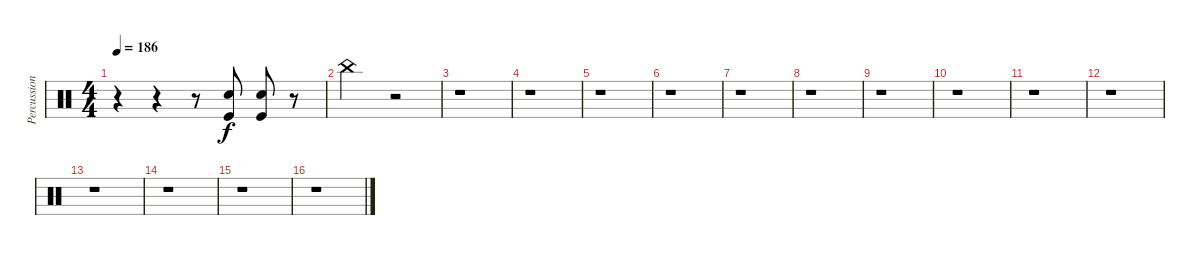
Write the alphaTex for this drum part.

\track ("Percussions" "Percussion") {instrument percussion}
\staff {score}
\articulation defaults
\ts (4 4)
\tempo 186
\clef neutral
\ks c
r.4{dy f} r.4 r.8 ("Snare (hit) 2" "Kick (hit)").8 ("Snare (hit) 2" "Kick (hit)").8 r.8 |
"China (hit)".2 r.2 |
r.1 |
r.1 |
r.1 |
r.1 |
r.1 |
r.1 |
r.1 |
r.1 |
r.1 |
r.1 |
r.1 |
r.1 |
r.1 |
r.1
